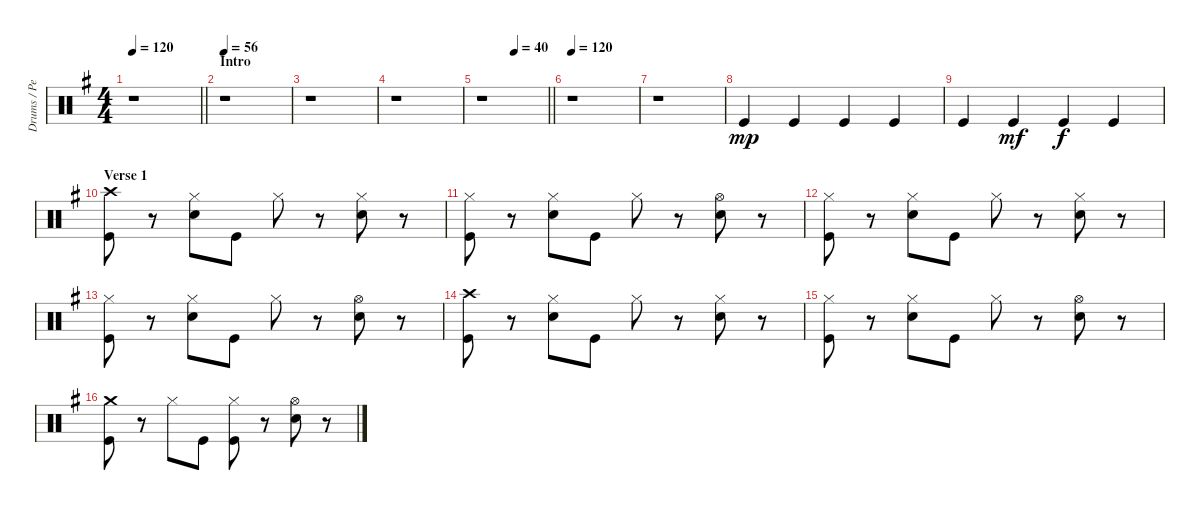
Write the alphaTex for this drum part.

\track ("Drums / Percussion" "Drums / Pe") {instrument percussion}
\staff {score}
\articulation defaults
\ts (4 4)
\tempo 120
\tempo 56
\tempo 120
\clef neutral
\barLineRight lightlight
\ks eminor
r.1{dy mp} |
\section ("" "Intro")
\tempo 56
r.1 |
r.1 |
r.1 |
\tempo (40 0.5)
\barLineRight lightlight
r.1 |
\tempo 120
r.1 |
r.1 |
"Kick (hit)".4 "Kick (hit)".4 "Kick (hit)".4 "Kick (hit)".4 |
"Kick (hit)".4 "Kick (hit)".4{dy mf} "Kick (hit)".4{dy f} "Kick (hit)".4 |
\section ("" "Verse 1")
("Crash high (hit)" "Kick (hit)").8 r.8 ("Hi-Hat (closed)" "Snare (hit) 2").8 "Kick (hit)".8 "Hi-Hat (closed)".8 r.8 ("Hi-Hat (closed)" "Snare (hit) 2").8 r.8 |
("Hi-Hat (closed)" "Kick (hit)").8 r.8 ("Hi-Hat (closed)" "Snare (hit) 2").8 "Kick (hit)".8 "Hi-Hat (closed)".8 r.8 ("Hi-Hat (open)" "Snare (hit) 2").8 r.8 |
("Hi-Hat (closed)" "Kick (hit)").8 r.8 ("Hi-Hat (closed)" "Snare (hit) 2").8 "Kick (hit)".8 "Hi-Hat (closed)".8 r.8 ("Hi-Hat (closed)" "Snare (hit) 2").8 r.8 |
("Hi-Hat (closed)" "Kick (hit)").8 r.8 ("Hi-Hat (closed)" "Snare (hit) 2").8 "Kick (hit)".8 "Hi-Hat (closed)".8 r.8 ("Hi-Hat (open)" "Snare (hit) 2").8 r.8 |
("Crash high (hit)" "Kick (hit)").8 r.8 ("Hi-Hat (closed)" "Snare (hit) 2").8 "Kick (hit)".8 "Hi-Hat (closed)".8 r.8 ("Hi-Hat (closed)" "Snare (hit) 2").8 r.8 |
("Hi-Hat (closed)" "Kick (hit)").8 r.8 ("Hi-Hat (closed)" "Snare (hit) 2").8 "Kick (hit)".8 "Hi-Hat (closed)".8 r.8 ("Hi-Hat (open)" "Snare (hit) 2").8 r.8 |
("Crash medium (hit)" "Kick (hit)").8 r.8 "Hi-Hat (closed)".8 "Kick (hit)".8 ("Hi-Hat (closed)" "Kick (hit)").8 r.8 ("Hi-Hat (open)" "Snare (hit) 2").8 r.8
